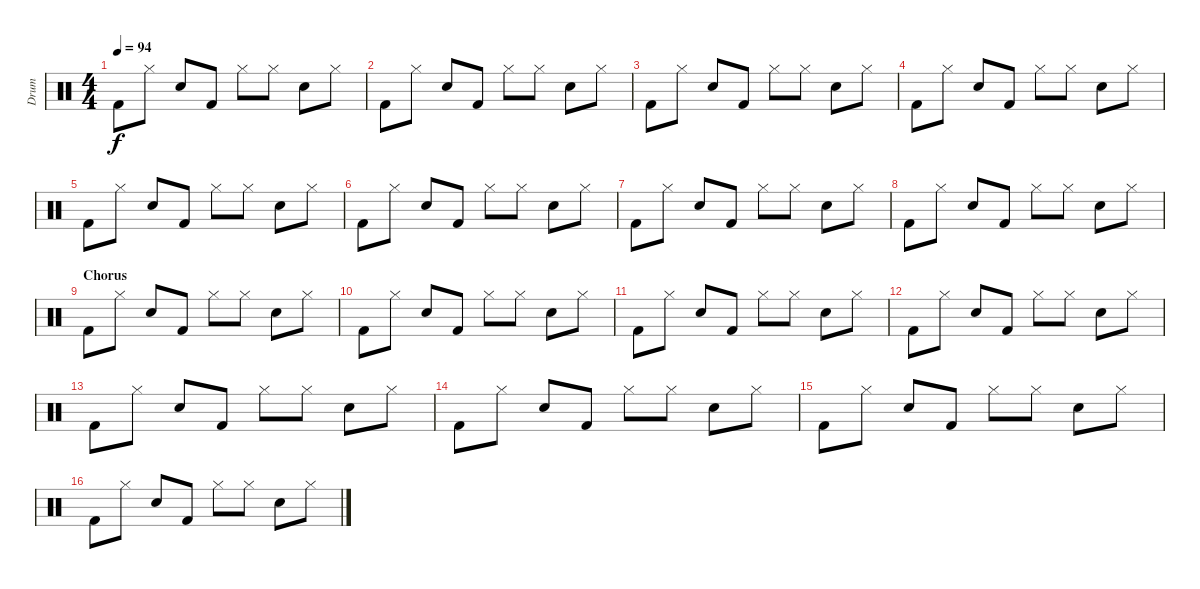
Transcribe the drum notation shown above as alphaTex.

\track ("Drum" "Drum") {instrument percussion}
\staff {score}
\articulation defaults
\ts (4 4)
\tempo 94
\clef neutral
\ks c "Kick (hit) 2".8{dy f} "Hi-Hat (closed)".8 "Electric Snare (hit)".8 "Kick (hit) 2".8 "Hi-Hat (closed)".8 "Hi-Hat (closed)".8 "Electric Snare (hit)".8 "Hi-Hat (closed)".8
|
"Kick (hit) 2".8 "Hi-Hat (closed)".8 "Electric Snare (hit)".8 "Kick (hit) 2".8 "Hi-Hat (closed)".8 "Hi-Hat (closed)".8 "Electric Snare (hit)".8 "Hi-Hat (closed)".8 |
"Kick (hit) 2".8 "Hi-Hat (closed)".8 "Electric Snare (hit)".8 "Kick (hit) 2".8 "Hi-Hat (closed)".8 "Hi-Hat (closed)".8 "Electric Snare (hit)".8 "Hi-Hat (closed)".8 |
"Kick (hit) 2".8 "Hi-Hat (closed)".8 "Electric Snare (hit)".8 "Kick (hit) 2".8 "Hi-Hat (closed)".8 "Hi-Hat (closed)".8 "Electric Snare (hit)".8 "Hi-Hat (closed)".8 |
"Kick (hit) 2".8 "Hi-Hat (closed)".8 "Electric Snare (hit)".8 "Kick (hit) 2".8 "Hi-Hat (closed)".8 "Hi-Hat (closed)".8 "Electric Snare (hit)".8 "Hi-Hat (closed)".8 |
"Kick (hit) 2".8 "Hi-Hat (closed)".8 "Electric Snare (hit)".8 "Kick (hit) 2".8 "Hi-Hat (closed)".8 "Hi-Hat (closed)".8 "Electric Snare (hit)".8 "Hi-Hat (closed)".8 |
"Kick (hit) 2".8 "Hi-Hat (closed)".8 "Electric Snare (hit)".8 "Kick (hit) 2".8 "Hi-Hat (closed)".8 "Hi-Hat (closed)".8 "Electric Snare (hit)".8 "Hi-Hat (closed)".8 |
"Kick (hit) 2".8 "Hi-Hat (closed)".8 "Electric Snare (hit)".8 "Kick (hit) 2".8 "Hi-Hat (closed)".8 "Hi-Hat (closed)".8 "Electric Snare (hit)".8 "Hi-Hat (closed)".8 |
\section ("" "Chorus")
"Kick (hit) 2".8 "Hi-Hat (closed)".8 "Electric Snare (hit)".8 "Kick (hit) 2".8 "Hi-Hat (closed)".8 "Hi-Hat (closed)".8 "Electric Snare (hit)".8 "Hi-Hat (closed)".8 |
"Kick (hit) 2".8 "Hi-Hat (closed)".8 "Electric Snare (hit)".8 "Kick (hit) 2".8 "Hi-Hat (closed)".8 "Hi-Hat (closed)".8 "Electric Snare (hit)".8 "Hi-Hat (closed)".8 |
"Kick (hit) 2".8 "Hi-Hat (closed)".8 "Electric Snare (hit)".8 "Kick (hit) 2".8 "Hi-Hat (closed)".8 "Hi-Hat (closed)".8 "Electric Snare (hit)".8 "Hi-Hat (closed)".8 |
"Kick (hit) 2".8 "Hi-Hat (closed)".8 "Electric Snare (hit)".8 "Kick (hit) 2".8 "Hi-Hat (closed)".8 "Hi-Hat (closed)".8 "Electric Snare (hit)".8 "Hi-Hat (closed)".8 |
"Kick (hit) 2".8 "Hi-Hat (closed)".8 "Electric Snare (hit)".8 "Kick (hit) 2".8 "Hi-Hat (closed)".8 "Hi-Hat (closed)".8 "Electric Snare (hit)".8 "Hi-Hat (closed)".8 |
"Kick (hit) 2".8 "Hi-Hat (closed)".8 "Electric Snare (hit)".8 "Kick (hit) 2".8 "Hi-Hat (closed)".8 "Hi-Hat (closed)".8 "Electric Snare (hit)".8 "Hi-Hat (closed)".8 |
"Kick (hit) 2".8 "Hi-Hat (closed)".8 "Electric Snare (hit)".8 "Kick (hit) 2".8 "Hi-Hat (closed)".8 "Hi-Hat (closed)".8 "Electric Snare (hit)".8 "Hi-Hat (closed)".8 |
"Kick (hit) 2".8 "Hi-Hat (closed)".8 "Electric Snare (hit)".8 "Kick (hit) 2".8 "Hi-Hat (closed)".8 "Hi-Hat (closed)".8 "Electric Snare (hit)".8 "Hi-Hat (closed)".8
